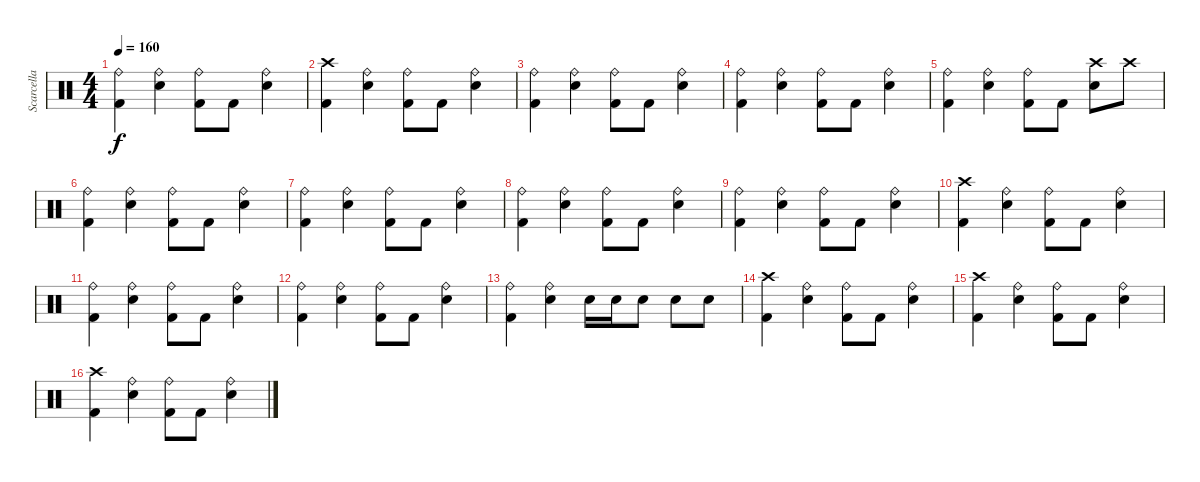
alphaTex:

\track ("Scarcella" "Scarcella") {instrument percussion}
\staff {score}
\articulation defaults
\ts (4 4)
\tempo 160
\clef neutral
\ks c
("Ride (bell)" "Kick (hit) 2").4{dy f} ("Ride (bell)" "Snare (hit) 2").4 ("Ride (bell)" "Kick (hit) 2").8 "Kick (hit) 2".8 ("Ride (bell)" "Snare (hit) 2").4 |
("Crash high (hit)" "Kick (hit) 2").4 ("Ride (bell)" "Snare (hit) 2").4 ("Ride (bell)" "Kick (hit) 2").8 "Kick (hit) 2".8 ("Ride (bell)" "Snare (hit) 2").4 |
("Ride (bell)" "Kick (hit) 2").4 ("Ride (bell)" "Snare (hit) 2").4 ("Ride (bell)" "Kick (hit) 2").8 "Kick (hit) 2".8 ("Ride (bell)" "Snare (hit) 2").4 |
("Ride (bell)" "Kick (hit) 2").4 ("Ride (bell)" "Snare (hit) 2").4 ("Ride (bell)" "Kick (hit) 2").8 "Kick (hit) 2".8 ("Ride (bell)" "Snare (hit) 2").4 |
("Ride (bell)" "Kick (hit) 2").4 ("Ride (bell)" "Snare (hit) 2").4 ("Ride (bell)" "Kick (hit) 2").8 "Kick (hit) 2".8 ("Crash high (hit)" "Snare (hit) 2").8 "Crash high (hit)".8 |
("Ride (bell)" "Kick (hit) 2").4 ("Ride (bell)" "Snare (hit) 2").4 ("Ride (bell)" "Kick (hit) 2").8 "Kick (hit) 2".8 ("Ride (bell)" "Snare (hit) 2").4 |
("Ride (bell)" "Kick (hit) 2").4 ("Ride (bell)" "Snare (hit) 2").4 ("Ride (bell)" "Kick (hit) 2").8 "Kick (hit) 2".8 ("Ride (bell)" "Snare (hit) 2").4 |
("Ride (bell)" "Kick (hit) 2").4 ("Ride (bell)" "Snare (hit) 2").4 ("Ride (bell)" "Kick (hit) 2").8 "Kick (hit) 2".8 ("Ride (bell)" "Snare (hit) 2").4 |
("Ride (bell)" "Kick (hit) 2").4 ("Ride (bell)" "Snare (hit) 2").4 ("Ride (bell)" "Kick (hit) 2").8 "Kick (hit) 2".8 ("Ride (bell)" "Snare (hit) 2").4 |
("Crash high (hit)" "Kick (hit) 2").4 ("Ride (bell)" "Snare (hit) 2").4 ("Ride (bell)" "Kick (hit) 2").8 "Kick (hit) 2".8 ("Ride (bell)" "Snare (hit) 2").4 |
("Ride (bell)" "Kick (hit) 2").4 ("Ride (bell)" "Snare (hit) 2").4 ("Ride (bell)" "Kick (hit) 2").8 "Kick (hit) 2".8 ("Ride (bell)" "Snare (hit) 2").4 |
("Ride (bell)" "Kick (hit) 2").4 ("Ride (bell)" "Snare (hit) 2").4 ("Ride (bell)" "Kick (hit) 2").8 "Kick (hit) 2".8 ("Ride (bell)" "Snare (hit) 2").4 |
("Ride (bell)" "Kick (hit) 2").4 ("Ride (bell)" "Snare (hit) 2").4 "Snare (hit) 2".16 "Snare (hit) 2".16 "Snare (hit) 2".8 "Snare (hit) 2".8 "Snare (hit) 2".8 |
("Crash high (hit)" "Kick (hit) 2").4 ("Ride (bell)" "Snare (hit) 2").4 ("Ride (bell)" "Kick (hit) 2").8 "Kick (hit) 2".8 ("Ride (bell)" "Snare (hit) 2").4 |
("Crash high (hit)" "Kick (hit) 2").4 ("Ride (bell)" "Snare (hit) 2").4 ("Ride (bell)" "Kick (hit) 2").8 "Kick (hit) 2".8 ("Ride (bell)" "Snare (hit) 2").4 |
("Crash high (hit)" "Kick (hit) 2").4 ("Ride (bell)" "Snare (hit) 2").4 ("Ride (bell)" "Kick (hit) 2").8 "Kick (hit) 2".8 ("Ride (bell)" "Snare (hit) 2").4
